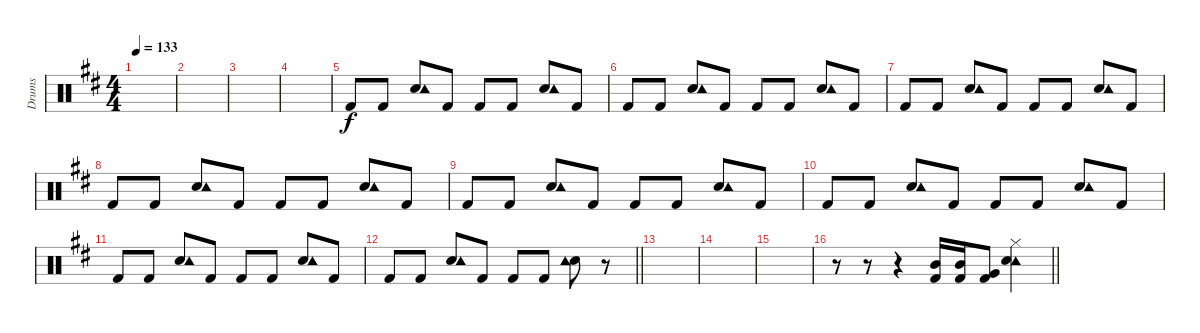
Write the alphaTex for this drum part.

\track ("Drums" "Drums") {instrument percussion}
\staff {score}
\articulation defaults
\ts (4 4)
\tempo 133
\clef neutral
\ks d
|
|
|
|
"Kick (hit) 2".8{volume 6} "Kick (hit) 2".8 ("Snare (hit) 2" "Tambourine (hit)").8 "Kick (hit) 2".8 "Kick (hit) 2".8 "Kick (hit) 2".8 ("Snare (hit) 2" "Tambourine (hit)").8 "Kick (hit) 2".8 |
"Kick (hit) 2".8{volume 8} "Kick (hit) 2".8 ("Snare (hit) 2" "Tambourine (hit)").8 "Kick (hit) 2".8 "Kick (hit) 2".8 "Kick (hit) 2".8 ("Snare (hit) 2" "Tambourine (hit)").8 "Kick (hit) 2".8 |
"Kick (hit) 2".8{volume 10} "Kick (hit) 2".8 ("Snare (hit) 2" "Tambourine (hit)").8 "Kick (hit) 2".8 "Kick (hit) 2".8 "Kick (hit) 2".8 ("Snare (hit) 2" "Tambourine (hit)").8 "Kick (hit) 2".8 |
"Kick (hit) 2".8{volume 12} "Kick (hit) 2".8 ("Snare (hit) 2" "Tambourine (hit)").8 "Kick (hit) 2".8 "Kick (hit) 2".8 "Kick (hit) 2".8 ("Snare (hit) 2" "Tambourine (hit)").8 "Kick (hit) 2".8 |
"Kick (hit) 2".8 "Kick (hit) 2".8 ("Snare (hit) 2" "Tambourine (hit)").8 "Kick (hit) 2".8 "Kick (hit) 2".8 "Kick (hit) 2".8 ("Snare (hit) 2" "Tambourine (hit)").8 "Kick (hit) 2".8 |
"Kick (hit) 2".8 "Kick (hit) 2".8 ("Snare (hit) 2" "Tambourine (hit)").8 "Kick (hit) 2".8 "Kick (hit) 2".8 "Kick (hit) 2".8 ("Snare (hit) 2" "Tambourine (hit)").8 "Kick (hit) 2".8 |
"Kick (hit) 2".8 "Kick (hit) 2".8 ("Snare (hit) 2" "Tambourine (hit)").8 "Kick (hit) 2".8 "Kick (hit) 2".8 "Kick (hit) 2".8 ("Snare (hit) 2" "Tambourine (hit)").8 "Kick (hit) 2".8 |
\barLineRight lightlight "Kick (hit) 2".8 "Kick (hit) 2".8
("Snare (hit) 2" "Tambourine (hit)").8 "Kick (hit) 2".8 "Kick (hit) 2".8 "Kick (hit) 2".8 ("Snare (hit) 2" "Tambourine (hit)").8 r.8 |
|
|
|
\barLineRight lightlight
r.8 r.8 r.4 ("Kick (hit) 2" "Mid Tom (hit)").16 ("Kick (hit) 2" "Mid Tom (hit)").16 ("Kick (hit) 2" "Very Low Tom (hit)").8 ("Tambourine (hit)" "Snare (hit) 2" "Hi-Hat (closed)").4
